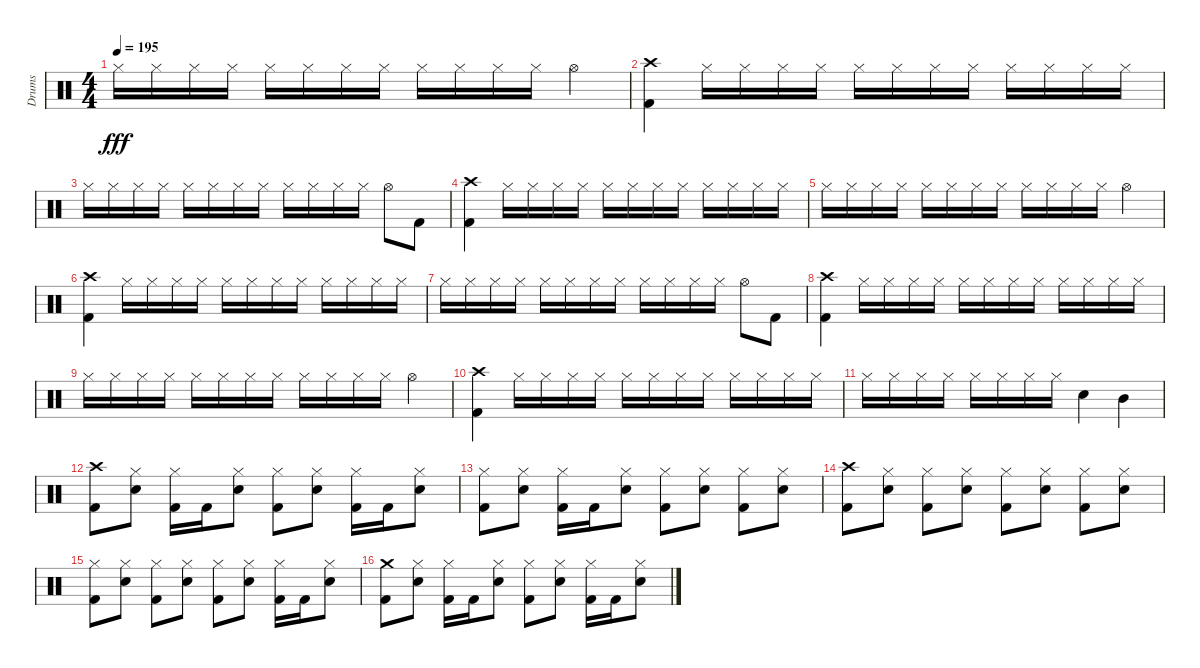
\track ("Drums" "Drums") {instrument percussion}
\staff {score}
\articulation defaults
\ts (4 4)
\tempo 195
\clef neutral
\ks c "Hi-Hat (closed)".16{dy fff} "Hi-Hat (closed)".16 "Hi-Hat (closed)".16 "Hi-Hat (closed)".16 "Hi-Hat (closed)".16 "Hi-Hat (closed)".16 "Hi-Hat (closed)".16 "Hi-Hat (closed)".16 "Hi-Hat (closed)".16 "Hi-Hat (closed)".16 "Hi-Hat (closed)".16 "Hi-Hat (closed)".16 "Hi-Hat (open)".4
|
("Kick (hit) 2" "Crash high (hit)").4 "Hi-Hat (closed)".16 "Hi-Hat (closed)".16 "Hi-Hat (closed)".16 "Hi-Hat (closed)".16 "Hi-Hat (closed)".16 "Hi-Hat (closed)".16 "Hi-Hat (closed)".16 "Hi-Hat (closed)".16 "Hi-Hat (closed)".16 "Hi-Hat (closed)".16 "Hi-Hat (closed)".16 "Hi-Hat (closed)".16 |
"Hi-Hat (closed)".16 "Hi-Hat (closed)".16 "Hi-Hat (closed)".16 "Hi-Hat (closed)".16 "Hi-Hat (closed)".16 "Hi-Hat (closed)".16 "Hi-Hat (closed)".16 "Hi-Hat (closed)".16 "Hi-Hat (closed)".16 "Hi-Hat (closed)".16 "Hi-Hat (closed)".16 "Hi-Hat (closed)".16 "Hi-Hat (open)".8 "Kick (hit) 2".8 |
("Kick (hit) 2" "Crash high (hit)").4 "Hi-Hat (closed)".16 "Hi-Hat (closed)".16 "Hi-Hat (closed)".16 "Hi-Hat (closed)".16 "Hi-Hat (closed)".16 "Hi-Hat (closed)".16 "Hi-Hat (closed)".16 "Hi-Hat (closed)".16 "Hi-Hat (closed)".16 "Hi-Hat (closed)".16 "Hi-Hat (closed)".16 "Hi-Hat (closed)".16 |
"Hi-Hat (closed)".16 "Hi-Hat (closed)".16 "Hi-Hat (closed)".16 "Hi-Hat (closed)".16 "Hi-Hat (closed)".16 "Hi-Hat (closed)".16 "Hi-Hat (closed)".16 "Hi-Hat (closed)".16 "Hi-Hat (closed)".16 "Hi-Hat (closed)".16 "Hi-Hat (closed)".16 "Hi-Hat (closed)".16 "Hi-Hat (open)".4 |
("Kick (hit) 2" "Crash high (hit)").4 "Hi-Hat (closed)".16 "Hi-Hat (closed)".16 "Hi-Hat (closed)".16 "Hi-Hat (closed)".16 "Hi-Hat (closed)".16 "Hi-Hat (closed)".16 "Hi-Hat (closed)".16 "Hi-Hat (closed)".16 "Hi-Hat (closed)".16 "Hi-Hat (closed)".16 "Hi-Hat (closed)".16 "Hi-Hat (closed)".16 |
"Hi-Hat (closed)".16 "Hi-Hat (closed)".16 "Hi-Hat (closed)".16 "Hi-Hat (closed)".16 "Hi-Hat (closed)".16 "Hi-Hat (closed)".16 "Hi-Hat (closed)".16 "Hi-Hat (closed)".16 "Hi-Hat (closed)".16 "Hi-Hat (closed)".16 "Hi-Hat (closed)".16 "Hi-Hat (closed)".16 "Hi-Hat (open)".8 "Kick (hit) 2".8 |
("Kick (hit) 2" "Crash high (hit)").4 "Hi-Hat (closed)".16 "Hi-Hat (closed)".16 "Hi-Hat (closed)".16 "Hi-Hat (closed)".16 "Hi-Hat (closed)".16 "Hi-Hat (closed)".16 "Hi-Hat (closed)".16 "Hi-Hat (closed)".16 "Hi-Hat (closed)".16 "Hi-Hat (closed)".16 "Hi-Hat (closed)".16 "Hi-Hat (closed)".16 |
"Hi-Hat (closed)".16 "Hi-Hat (closed)".16 "Hi-Hat (closed)".16 "Hi-Hat (closed)".16 "Hi-Hat (closed)".16 "Hi-Hat (closed)".16 "Hi-Hat (closed)".16 "Hi-Hat (closed)".16 "Hi-Hat (closed)".16 "Hi-Hat (closed)".16 "Hi-Hat (closed)".16 "Hi-Hat (closed)".16 "Hi-Hat (open)".4 |
("Kick (hit) 2" "Crash high (hit)").4 "Hi-Hat (closed)".16 "Hi-Hat (closed)".16 "Hi-Hat (closed)".16 "Hi-Hat (closed)".16 "Hi-Hat (closed)".16 "Hi-Hat (closed)".16 "Hi-Hat (closed)".16 "Hi-Hat (closed)".16 "Hi-Hat (closed)".16 "Hi-Hat (closed)".16 "Hi-Hat (closed)".16 "Hi-Hat (closed)".16 |
"Hi-Hat (closed)".16 "Hi-Hat (closed)".16 "Hi-Hat (closed)".16 "Hi-Hat (closed)".16 "Hi-Hat (closed)".16 "Hi-Hat (closed)".16 "Hi-Hat (closed)".16 "Hi-Hat (closed)".16 "Metronome (bell)".4 "Mid Tom (hit)".4 |
("Kick (hit) 2" "Crash high (hit)").8 ("Metronome (bell)" "Hi-Hat (closed)").8 ("Kick (hit) 2" "Hi-Hat (closed)").16 "Kick (hit) 2".16 ("Metronome (bell)" "Hi-Hat (closed)").8 ("Kick (hit) 2" "Hi-Hat (closed)").8 ("Metronome (bell)" "Hi-Hat (closed)").8 ("Kick (hit) 2" "Hi-Hat (closed)").16 "Kick (hit) 2".16 ("Metronome (bell)" "Hi-Hat (closed)").8 |
("Kick (hit) 2" "Hi-Hat (closed)").8 ("Metronome (bell)" "Hi-Hat (closed)").8 ("Kick (hit) 2" "Hi-Hat (closed)").16 "Kick (hit) 2".16 ("Metronome (bell)" "Hi-Hat (closed)").8 ("Kick (hit) 2" "Hi-Hat (closed)").8 ("Metronome (bell)" "Hi-Hat (closed)").8 ("Kick (hit) 2" "Hi-Hat (closed)").8 ("Metronome (bell)" "Hi-Hat (closed)").8 |
("Kick (hit) 2" "Crash high (hit)").8 ("Metronome (bell)" "Hi-Hat (closed)").8 ("Kick (hit) 2" "Hi-Hat (closed)").8 ("Metronome (bell)" "Hi-Hat (closed)").8 ("Kick (hit) 2" "Hi-Hat (closed)").8 ("Metronome (bell)" "Hi-Hat (closed)").8 ("Kick (hit) 2" "Hi-Hat (closed)").8 ("Metronome (bell)" "Hi-Hat (closed)").8 |
("Kick (hit) 2" "Hi-Hat (closed)").8 ("Metronome (bell)" "Hi-Hat (closed)").8 ("Kick (hit) 2" "Hi-Hat (closed)").8 ("Metronome (bell)" "Hi-Hat (closed)").8 ("Kick (hit) 2" "Hi-Hat (closed)").8 ("Metronome (bell)" "Hi-Hat (closed)").8 ("Kick (hit) 2" "Hi-Hat (closed)").16 "Kick (hit) 2".16 ("Metronome (bell)" "Hi-Hat (closed)").8 |
("Kick (hit) 2" "Crash medium (hit)").8 ("Metronome (bell)" "Hi-Hat (closed)").8 ("Kick (hit) 2" "Hi-Hat (closed)").16 "Kick (hit) 2".16 ("Metronome (bell)" "Hi-Hat (closed)").8 ("Kick (hit) 2" "Hi-Hat (closed)").8 ("Metronome (bell)" "Hi-Hat (closed)").8 ("Kick (hit) 2" "Hi-Hat (closed)").16 "Kick (hit) 2".16 ("Metronome (bell)" "Hi-Hat (closed)").8
